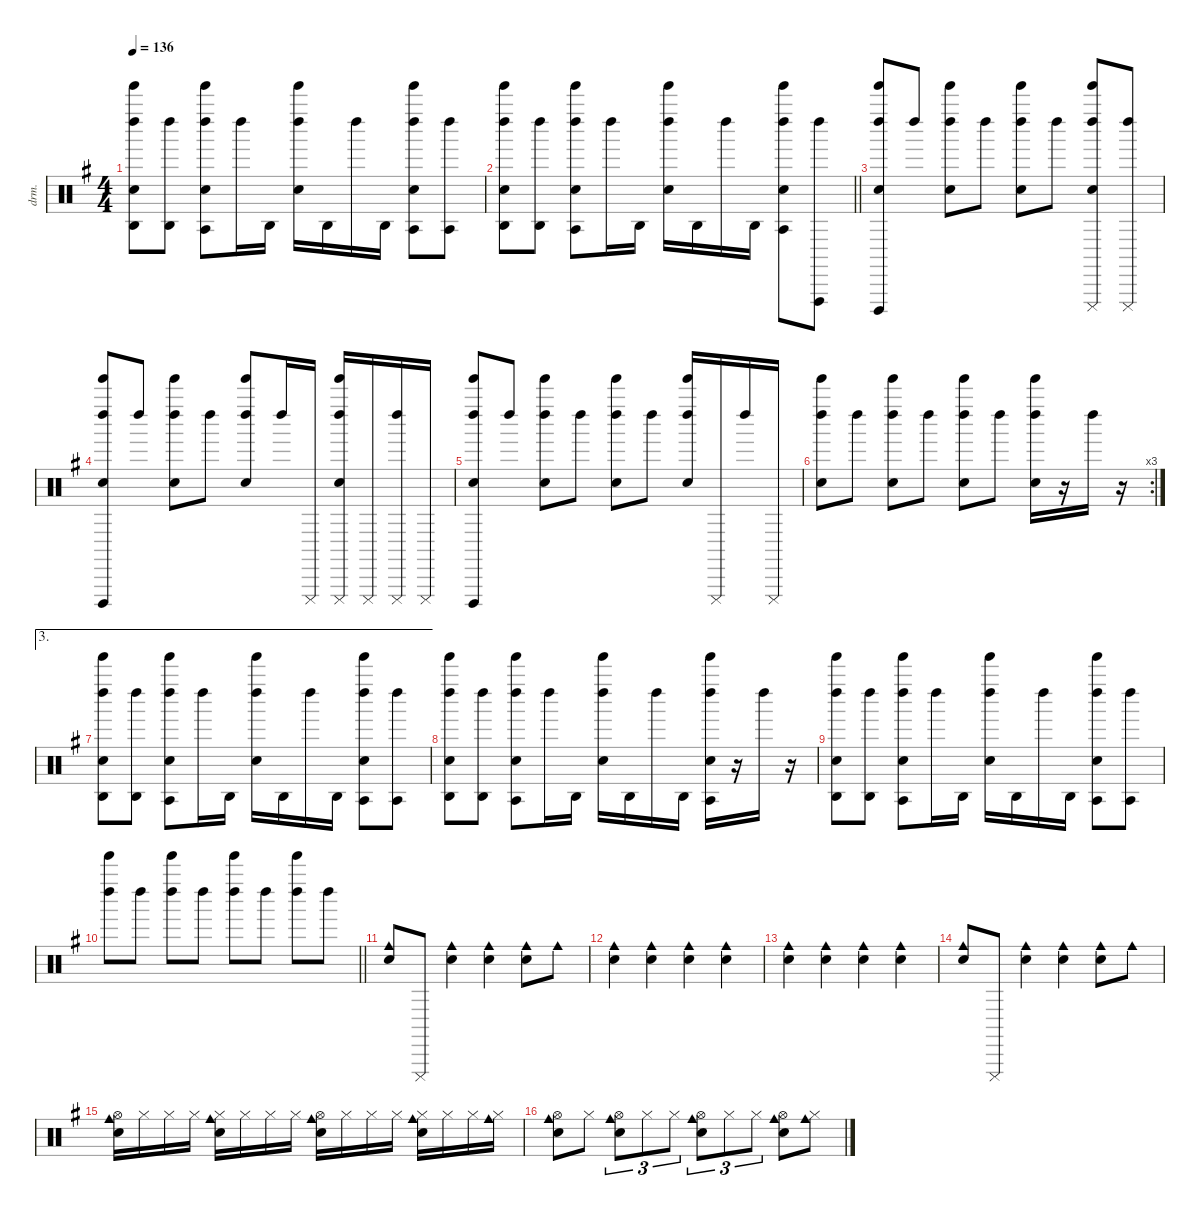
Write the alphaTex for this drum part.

\defaultSystemsLayout 4
\hideDynamics
\bracketExtendMode nobrackets
\otherSystemsTrackNameOrientation horizontal
\track ("Percussions" "drm.") {instrument percussion}
\staff {score}
\articulation defaults
\ts (4 4)
\tempo 136
\clef neutral
\ks g
("Jingle Bell (hit)"{acc forcenatural} "Left Maraca (hit)"{acc forcenatural} "Agogo high (hit)"{acc forcenatural} "Hand Clap (hit)"{acc forcenatural}).8{dy f beam Down} ("Left Maraca (hit)"{acc forcenatural} "Agogo high (hit)"{acc forcenatural}).8{beam Down} ("Jingle Bell (hit)"{acc forcenatural} "Left Maraca (hit)"{acc forcenatural} "Agogo tow (hit)"{acc forcenatural} "Hand Clap (hit)"{acc forcenatural}).8{beam Down} "Left Maraca (hit)"{acc forcenatural}.16{beam Down} "Agogo high (hit)"{acc forcenatural}.16{beam Down} ("Jingle Bell (hit)"{acc forcenatural} "Left Maraca (hit)"{acc forcenatural} "Hand Clap (hit)"{acc forcenatural}).16{beam Down} "Agogo high (hit)"{acc forcenatural}.16{beam Down} "Left Maraca (hit)"{acc forcenatural}.16{beam Down} "Agogo high (hit)"{acc forcenatural}.16{beam Down} ("Jingle Bell (hit)"{acc forcenatural} "Left Maraca (hit)"{acc forcenatural} "Agogo tow (hit)"{acc forcenatural} "Hand Clap (hit)"{acc forcenatural}).8{beam Down} ("Left Maraca (hit)"{acc forcenatural} "Agogo tow (hit)"{acc forcenatural}).8{beam Down} |
\barLineRight lightlight
("Jingle Bell (hit)"{acc forcenatural} "Left Maraca (hit)"{acc forcenatural} "Agogo high (hit)"{acc forcenatural} "Hand Clap (hit)"{acc forcenatural}).8{beam Down} ("Left Maraca (hit)"{acc forcenatural} "Agogo high (hit)"{acc forcenatural}).8{beam Down} ("Jingle Bell (hit)"{acc forcenatural} "Left Maraca (hit)"{acc forcenatural} "Agogo tow (hit)"{acc forcenatural} "Hand Clap (hit)"{acc forcenatural}).8{beam Down} "Left Maraca (hit)"{acc forcenatural}.16{beam Down} "Agogo high (hit)"{acc forcenatural}.16{beam Down} ("Jingle Bell (hit)"{acc forcenatural} "Left Maraca (hit)"{acc forcenatural} "Hand Clap (hit)"{acc forcenatural}).16{beam Down} "Agogo high (hit)"{acc forcenatural}.16{beam Down} "Left Maraca (hit)"{acc forcenatural}.16{beam Down} "Agogo high (hit)"{acc forcenatural}.16{beam Down} ("Jingle Bell (hit)"{acc forcenatural} "Left Maraca (hit)"{acc forcenatural} "Agogo tow (hit)"{acc forcenatural} "Hand Clap (hit)"{acc forcenatural}).8{beam Down} ("Left Maraca (hit)"{acc forcenatural} "Vibraslap (hit)"{acc forcenatural}).8{beam Down} |
("Jingle Bell (hit)"{acc forcenatural} "Left Maraca (hit)"{acc forcenatural} "Cuica (open)"{acc forcenatural} "Hand Clap (hit)"{acc forcenatural}).8{beam Up} "Left Maraca (hit)"{acc forcenatural}.8{beam Up} ("Jingle Bell (hit)"{acc forcenatural} "Left Maraca (hit)"{acc forcenatural} "Hand Clap (hit)"{acc forcenatural}).8{beam Down} "Left Maraca (hit)"{acc forcenatural}.8{beam Down} ("Jingle Bell (hit)"{acc forcenatural} "Left Maraca (hit)"{acc forcenatural} "Hand Clap (hit)"{acc forcenatural}).8{beam Down} "Left Maraca (hit)"{acc forcenatural}.8{beam Down} ("Jingle Bell (hit)"{acc forcenatural} "Left Maraca (hit)"{acc forcenatural} "Cuica (mute)"{acc forcenatural} "Hand Clap (hit)"{acc forcenatural}).8{beam Up} ("Left Maraca (hit)"{acc forcenatural} "Cuica (mute)"{acc forcenatural}).8{beam Up} |
("Jingle Bell (hit)"{acc forcenatural} "Left Maraca (hit)"{acc forcenatural} "Cuica (open)"{acc forcenatural} "Hand Clap (hit)"{acc forcenatural}).8{beam Up} "Left Maraca (hit)"{acc forcenatural}.8{beam Up} ("Jingle Bell (hit)"{acc forcenatural} "Left Maraca (hit)"{acc forcenatural} "Hand Clap (hit)"{acc forcenatural}).8{beam Down} "Left Maraca (hit)"{acc forcenatural}.8{beam Down} ("Jingle Bell (hit)"{acc forcenatural} "Left Maraca (hit)"{acc forcenatural} "Hand Clap (hit)"{acc forcenatural}).8{beam Up} "Left Maraca (hit)"{acc forcenatural}.16{beam Up} "Cuica (mute)"{acc forcenatural}.16{beam Up} ("Jingle Bell (hit)"{acc forcenatural} "Left Maraca (hit)"{acc forcenatural} "Cuica (mute)"{acc forcenatural} "Hand Clap (hit)"{acc forcenatural}).16{beam Up} "Cuica (mute)"{acc forcenatural}.16{beam Up} ("Left Maraca (hit)"{acc forcenatural} "Cuica (mute)"{acc forcenatural}).16{beam Up} "Cuica (mute)"{acc forcenatural}.16{beam Up} |
("Jingle Bell (hit)"{acc forcenatural} "Left Maraca (hit)"{acc forcenatural} "Cuica (open)"{acc forcenatural} "Hand Clap (hit)"{acc forcenatural}).8{beam Up} "Left Maraca (hit)"{acc forcenatural}.8{beam Up} ("Jingle Bell (hit)"{acc forcenatural} "Left Maraca (hit)"{acc forcenatural} "Hand Clap (hit)"{acc forcenatural}).8{beam Down} "Left Maraca (hit)"{acc forcenatural}.8{beam Down} ("Jingle Bell (hit)"{acc forcenatural} "Left Maraca (hit)"{acc forcenatural} "Hand Clap (hit)"{acc forcenatural}).8{beam Down} "Left Maraca (hit)"{acc forcenatural}.8{beam Down} ("Jingle Bell (hit)"{acc forcenatural} "Left Maraca (hit)"{acc forcenatural} "Hand Clap (hit)"{acc forcenatural}).16{beam Up} "Cuica (mute)"{acc forcenatural}.16{beam Up} "Left Maraca (hit)"{acc forcenatural}.16{beam Up} "Cuica (mute)"{acc forcenatural}.16{beam Up} |
\rc 3
("Jingle Bell (hit)"{acc forcenatural} "Left Maraca (hit)"{acc forcenatural} "Hand Clap (hit)"{acc forcenatural}).8{beam Down} "Left Maraca (hit)"{acc forcenatural}.8{beam Down} ("Jingle Bell (hit)"{acc forcenatural} "Left Maraca (hit)"{acc forcenatural} "Hand Clap (hit)"{acc forcenatural}).8{beam Down} "Left Maraca (hit)"{acc forcenatural}.8{beam Down} ("Jingle Bell (hit)"{acc forcenatural} "Left Maraca (hit)"{acc forcenatural} "Hand Clap (hit)"{acc forcenatural}).8{beam Down} "Left Maraca (hit)"{acc forcenatural}.8{beam Down} ("Jingle Bell (hit)"{acc forcenatural} "Left Maraca (hit)"{acc forcenatural} "Hand Clap (hit)"{acc forcenatural}).16{beam Down} r.16{beam Down} "Left Maraca (hit)"{acc forcenatural}.16{beam Down} r.16{beam Down} |
\ae 3
("Jingle Bell (hit)"{acc forcenatural} "Left Maraca (hit)"{acc forcenatural} "Agogo high (hit)"{acc forcenatural} "Hand Clap (hit)"{acc forcenatural}).8{beam Down} ("Left Maraca (hit)"{acc forcenatural} "Agogo high (hit)"{acc forcenatural}).8{beam Down} ("Jingle Bell (hit)"{acc forcenatural} "Left Maraca (hit)"{acc forcenatural} "Agogo tow (hit)"{acc forcenatural} "Hand Clap (hit)"{acc forcenatural}).8{beam Down} "Left Maraca (hit)"{acc forcenatural}.16{beam Down} "Agogo high (hit)"{acc forcenatural}.16{beam Down} ("Jingle Bell (hit)"{acc forcenatural} "Left Maraca (hit)"{acc forcenatural} "Hand Clap (hit)"{acc forcenatural}).16{beam Down} "Agogo high (hit)"{acc forcenatural}.16{beam Down} "Left Maraca (hit)"{acc forcenatural}.16{beam Down} "Agogo high (hit)"{acc forcenatural}.16{beam Down} ("Jingle Bell (hit)"{acc forcenatural} "Left Maraca (hit)"{acc forcenatural} "Agogo tow (hit)"{acc forcenatural} "Hand Clap (hit)"{acc forcenatural}).8{beam Down} ("Left Maraca (hit)"{acc forcenatural} "Agogo tow (hit)"{acc forcenatural}).8{beam Down} |
("Jingle Bell (hit)"{acc forcenatural} "Left Maraca (hit)"{acc forcenatural} "Agogo high (hit)"{acc forcenatural} "Hand Clap (hit)"{acc forcenatural}).8{beam Down} ("Left Maraca (hit)"{acc forcenatural} "Agogo high (hit)"{acc forcenatural}).8{beam Down} ("Jingle Bell (hit)"{acc forcenatural} "Left Maraca (hit)"{acc forcenatural} "Agogo tow (hit)"{acc forcenatural} "Hand Clap (hit)"{acc forcenatural}).8{beam Down} "Left Maraca (hit)"{acc forcenatural}.16{beam Down} "Agogo high (hit)"{acc forcenatural}.16{beam Down} ("Jingle Bell (hit)"{acc forcenatural} "Left Maraca (hit)"{acc forcenatural} "Hand Clap (hit)"{acc forcenatural}).16{beam Down} "Agogo high (hit)"{acc forcenatural}.16{beam Down} "Left Maraca (hit)"{acc forcenatural}.16{beam Down} "Agogo high (hit)"{acc forcenatural}.16{beam Down} ("Jingle Bell (hit)"{acc forcenatural} "Left Maraca (hit)"{acc forcenatural} "Agogo tow (hit)"{acc forcenatural} "Hand Clap (hit)"{acc forcenatural}).16{beam Down} r.16{beam Down} "Left Maraca (hit)"{acc forcenatural}.16{beam Down} r.16{beam Down} |
("Jingle Bell (hit)"{acc forcenatural} "Left Maraca (hit)"{acc forcenatural} "Agogo high (hit)"{acc forcenatural} "Hand Clap (hit)"{acc forcenatural}).8{beam Down} ("Left Maraca (hit)"{acc forcenatural} "Agogo high (hit)"{acc forcenatural}).8{beam Down} ("Jingle Bell (hit)"{acc forcenatural} "Left Maraca (hit)"{acc forcenatural} "Agogo tow (hit)"{acc forcenatural} "Hand Clap (hit)"{acc forcenatural}).8{beam Down} "Left Maraca (hit)"{acc forcenatural}.16{beam Down} "Agogo high (hit)"{acc forcenatural}.16{beam Down} ("Jingle Bell (hit)"{acc forcenatural} "Left Maraca (hit)"{acc forcenatural} "Hand Clap (hit)"{acc forcenatural}).16{beam Down} "Agogo high (hit)"{acc forcenatural}.16{beam Down} "Left Maraca (hit)"{acc forcenatural}.16{beam Down} "Agogo high (hit)"{acc forcenatural}.16{beam Down} ("Jingle Bell (hit)"{acc forcenatural} "Left Maraca (hit)"{acc forcenatural} "Agogo tow (hit)"{acc forcenatural} "Hand Clap (hit)"{acc forcenatural}).8{beam Down} ("Left Maraca (hit)"{acc forcenatural} "Agogo tow (hit)"{acc forcenatural}).8{beam Down} |
\barLineRight lightlight
("Jingle Bell (hit)"{acc forcenatural} "Left Maraca (hit)"{acc forcenatural}).8{beam Down} "Left Maraca (hit)"{acc forcenatural}.8{beam Down} ("Jingle Bell (hit)"{acc forcenatural} "Left Maraca (hit)"{acc forcenatural}).8{beam Down} "Left Maraca (hit)"{acc forcenatural}.8{beam Down} ("Jingle Bell (hit)"{acc forcenatural} "Left Maraca (hit)"{acc forcenatural}).8{beam Down} "Left Maraca (hit)"{acc forcenatural}.8{beam Down} ("Jingle Bell (hit)"{acc forcenatural} "Left Maraca (hit)"{acc forcenatural}).8{beam Down} "Left Maraca (hit)"{acc forcenatural}.8{beam Down} |
("Hand Clap (hit)"{acc forcenatural} "Cowbell medium (hit)"{acc forcenatural}).8{beam Up} "Cuica (mute)"{acc forcenatural}.8{beam Up} ("Hand Clap (hit)"{acc forcenatural} "Cowbell medium (hit)"{acc forcenatural}).4{beam Down} ("Hand Clap (hit)"{acc forcenatural} "Cowbell medium (hit)"{acc forcenatural}).4{beam Down} ("Hand Clap (hit)"{acc forcenatural} "Cowbell medium (hit)"{acc forcenatural}).8{beam Down} "Cowbell medium (hit)"{acc forcenatural}.8{beam Down} |
("Hand Clap (hit)"{acc forcenatural} "Cowbell medium (hit)"{acc forcenatural}).4{beam Down} ("Hand Clap (hit)"{acc forcenatural} "Cowbell medium (hit)"{acc forcenatural}).4{beam Down} ("Hand Clap (hit)"{acc forcenatural} "Cowbell medium (hit)"{acc forcenatural}).4{beam Down} ("Hand Clap (hit)"{acc forcenatural} "Cowbell medium (hit)"{acc forcenatural}).4{beam Down} |
("Hand Clap (hit)"{acc forcenatural} "Cowbell medium (hit)"{acc forcenatural}).4{beam Down} ("Hand Clap (hit)"{acc forcenatural} "Cowbell medium (hit)"{acc forcenatural}).4{beam Down} ("Hand Clap (hit)"{acc forcenatural} "Cowbell medium (hit)"{acc forcenatural}).4{beam Down} ("Hand Clap (hit)"{acc forcenatural} "Cowbell medium (hit)"{acc forcenatural}).4{beam Down} |
("Hand Clap (hit)"{acc forcenatural} "Cowbell medium (hit)"{acc forcenatural}).8{beam Up} "Cuica (mute)"{acc forcenatural}.8{beam Up} ("Hand Clap (hit)"{acc forcenatural} "Cowbell medium (hit)"{acc forcenatural}).4{beam Down} ("Hand Clap (hit)"{acc forcenatural} "Cowbell medium (hit)"{acc forcenatural}).4{beam Down} ("Hand Clap (hit)"{acc forcenatural} "Cowbell medium (hit)"{acc forcenatural}).8{beam Down} "Cowbell medium (hit)"{acc forcenatural}.8{beam Down} |
("Hand Clap (hit)"{acc forcenatural} "Cowbell medium (hit)"{acc forcenatural} "Hi-Hat (open)"{acc forcenatural}).16{beam Down} "Hi-Hat (closed)"{acc forcenatural}.16{beam Down} "Hi-Hat (closed)"{acc forcenatural}.16{beam Down} "Hi-Hat (closed)"{acc forcenatural}.16{beam Down} ("Hand Clap (hit)"{acc forcenatural} "Cowbell medium (hit)"{acc forcenatural} "Hi-Hat (closed)"{acc forcenatural}).16{beam Down} "Hi-Hat (closed)"{acc forcenatural}.16{beam Down} "Hi-Hat (closed)"{acc forcenatural}.16{beam Down} "Hi-Hat (closed)"{acc forcenatural}.16{beam Down} ("Hand Clap (hit)"{acc forcenatural} "Cowbell medium (hit)"{acc forcenatural} "Hi-Hat (open)"{acc forcenatural}).16{beam Down} "Hi-Hat (closed)"{acc forcenatural}.16{beam Down} "Hi-Hat (closed)"{acc forcenatural}.16{beam Down} "Hi-Hat (closed)"{acc forcenatural}.16{beam Down} ("Hand Clap (hit)"{acc forcenatural} "Cowbell medium (hit)"{acc forcenatural} "Hi-Hat (closed)"{acc forcenatural}).16{beam Down} "Hi-Hat (closed)"{acc forcenatural}.16{beam Down} "Hi-Hat (closed)"{acc forcenatural}.16{beam Down} ("Cowbell medium (hit)"{acc forcenatural} "Hi-Hat (closed)"{acc forcenatural}).16{beam Down} |
("Hand Clap (hit)"{acc forcenatural} "Cowbell medium (hit)"{acc forcenatural} "Hi-Hat (open)"{acc forcenatural}).8{beam Down} "Hi-Hat (closed)"{acc forcenatural}.8{beam Down} ("Hand Clap (hit)"{acc forcenatural} "Cowbell medium (hit)"{acc forcenatural} "Hi-Hat (open)"{acc forcenatural}).8{tu (3 2) beam Down} "Hi-Hat (closed)"{acc forcenatural}.8{tu (3 2) beam Down} "Hi-Hat (closed)"{acc forcenatural}.8{tu (3 2) beam Down} ("Hand Clap (hit)"{acc forcenatural} "Cowbell medium (hit)"{acc forcenatural} "Hi-Hat (open)"{acc forcenatural}).8{tu (3 2) beam Down} "Hi-Hat (closed)"{acc forcenatural}.8{tu (3 2) beam Down} "Hi-Hat (closed)"{acc forcenatural}.8{tu (3 2) beam Down} ("Hand Clap (hit)"{acc forcenatural} "Cowbell medium (hit)"{acc forcenatural} "Hi-Hat (open)"{acc forcenatural}).8{beam Down} ("Cowbell medium (hit)"{acc forcenatural} "Hi-Hat (closed)"{acc forcenatural}).8{beam Down}
